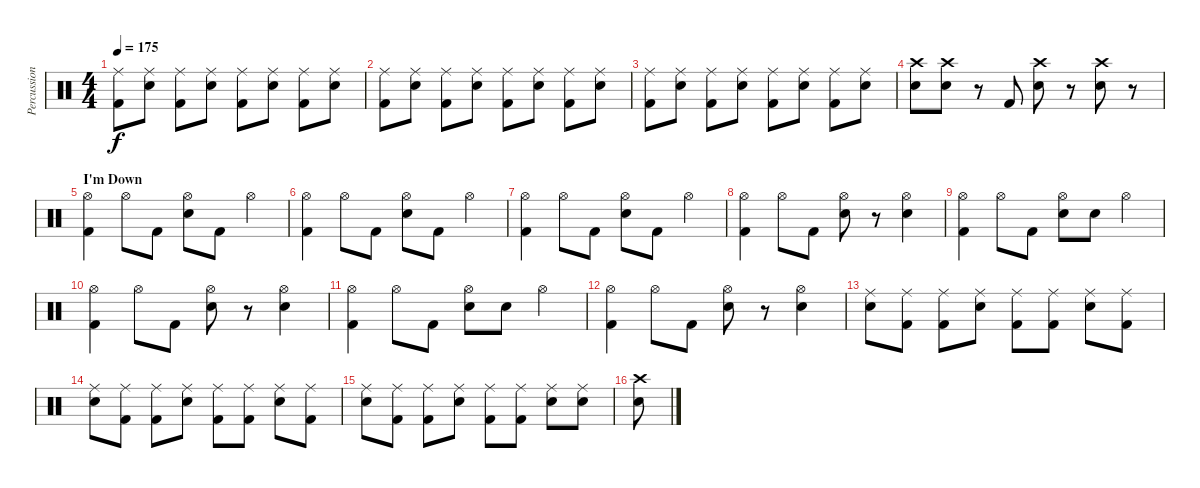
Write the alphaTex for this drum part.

\track ("Percussion" "Percussion") {instrument percussion}
\staff {score}
\articulation defaults
\ts (4 4)
\tempo 175
\clef neutral
\ks c
("Ride (middle)" "Kick (hit) 2").8{dy f} ("Ride (middle)" "Snare (hit) 2").8 ("Ride (middle)" "Kick (hit) 2").8 ("Ride (middle)" "Snare (hit) 2").8 ("Ride (middle)" "Kick (hit) 2").8 ("Ride (middle)" "Snare (hit) 2").8 ("Ride (middle)" "Kick (hit) 2").8 ("Ride (middle)" "Snare (hit) 2").8 |
("Ride (middle)" "Kick (hit) 2").8 ("Ride (middle)" "Snare (hit) 2").8 ("Ride (middle)" "Kick (hit) 2").8 ("Ride (middle)" "Snare (hit) 2").8 ("Ride (middle)" "Kick (hit) 2").8 ("Ride (middle)" "Snare (hit) 2").8 ("Ride (middle)" "Kick (hit) 2").8 ("Ride (middle)" "Snare (hit) 2").8 |
("Ride (middle)" "Kick (hit) 2").8 ("Ride (middle)" "Snare (hit) 2").8 ("Ride (middle)" "Kick (hit) 2").8 ("Ride (middle)" "Snare (hit) 2").8 ("Ride (middle)" "Kick (hit) 2").8 ("Ride (middle)" "Snare (hit) 2").8 ("Ride (middle)" "Kick (hit) 2").8 ("Ride (middle)" "Snare (hit) 2").8 |
("Crash high (hit)" "Snare (hit) 2").8 ("Crash high (hit)" "Snare (hit) 2").8 r.8 "Kick (hit) 2".8 ("Crash high (hit)" "Snare (hit) 2").8 r.8 ("Crash high (hit)" "Snare (hit) 2").8 r.8 |
\section ("" "I'm Down")
("Hi-Hat (open)" "Kick (hit) 2").4 "Hi-Hat (open)".8 "Kick (hit) 2".8 ("Hi-Hat (open)" "Snare (hit) 2").8 "Kick (hit) 2".8 "Hi-Hat (open)".4 |
("Hi-Hat (open)" "Kick (hit) 2").4 "Hi-Hat (open)".8 "Kick (hit) 2".8 ("Hi-Hat (open)" "Snare (hit) 2").8 "Kick (hit) 2".8 "Hi-Hat (open)".4 |
("Hi-Hat (open)" "Kick (hit) 2").4 "Hi-Hat (open)".8 "Kick (hit) 2".8 ("Hi-Hat (open)" "Snare (hit) 2").8 "Kick (hit) 2".8 "Hi-Hat (open)".4 |
("Hi-Hat (open)" "Kick (hit) 2").4 "Hi-Hat (open)".8 "Kick (hit) 2".8 ("Hi-Hat (open)" "Snare (hit) 2").8 r.8 ("Hi-Hat (open)" "Snare (hit) 2").4 |
("Hi-Hat (open)" "Kick (hit) 2").4 "Hi-Hat (open)".8 "Kick (hit) 2".8 ("Hi-Hat (open)" "Snare (hit) 2").8 "Snare (hit) 2".8 "Hi-Hat (open)".4 |
("Hi-Hat (open)" "Kick (hit) 2").4 "Hi-Hat (open)".8 "Kick (hit) 2".8 ("Hi-Hat (open)" "Snare (hit) 2").8 r.8 ("Hi-Hat (open)" "Snare (hit) 2").4 |
("Hi-Hat (open)" "Kick (hit) 2").4 "Hi-Hat (open)".8 "Kick (hit) 2".8 ("Hi-Hat (open)" "Snare (hit) 2").8 "Snare (hit) 2".8 "Hi-Hat (open)".4 |
("Hi-Hat (open)" "Kick (hit) 2").4 "Hi-Hat (open)".8 "Kick (hit) 2".8 ("Hi-Hat (open)" "Snare (hit) 2").8 r.8 ("Hi-Hat (open)" "Snare (hit) 2").4 |
("Ride (middle)" "Snare (hit) 2").8 ("Ride (middle)" "Kick (hit) 2").8 ("Ride (middle)" "Kick (hit) 2").8 ("Ride (middle)" "Snare (hit) 2").8 ("Ride (middle)" "Kick (hit) 2").8 ("Ride (middle)" "Kick (hit) 2").8 ("Ride (middle)" "Snare (hit) 2").8 ("Ride (middle)" "Kick (hit) 2").8 |
("Ride (middle)" "Snare (hit) 2").8 ("Ride (middle)" "Kick (hit) 2").8 ("Ride (middle)" "Kick (hit) 2").8 ("Ride (middle)" "Snare (hit) 2").8 ("Ride (middle)" "Kick (hit) 2").8 ("Ride (middle)" "Kick (hit) 2").8 ("Ride (middle)" "Snare (hit) 2").8 ("Ride (middle)" "Kick (hit) 2").8 |
("Ride (middle)" "Snare (hit) 2").8 ("Ride (middle)" "Kick (hit) 2").8 ("Ride (middle)" "Kick (hit) 2").8 ("Ride (middle)" "Snare (hit) 2").8 ("Ride (middle)" "Kick (hit) 2").8 ("Ride (middle)" "Kick (hit) 2").8 ("Ride (middle)" "Snare (hit) 2").8 ("Ride (middle)" "Snare (hit) 2").8 |
("Crash high (hit)" "Snare (hit) 2").8
